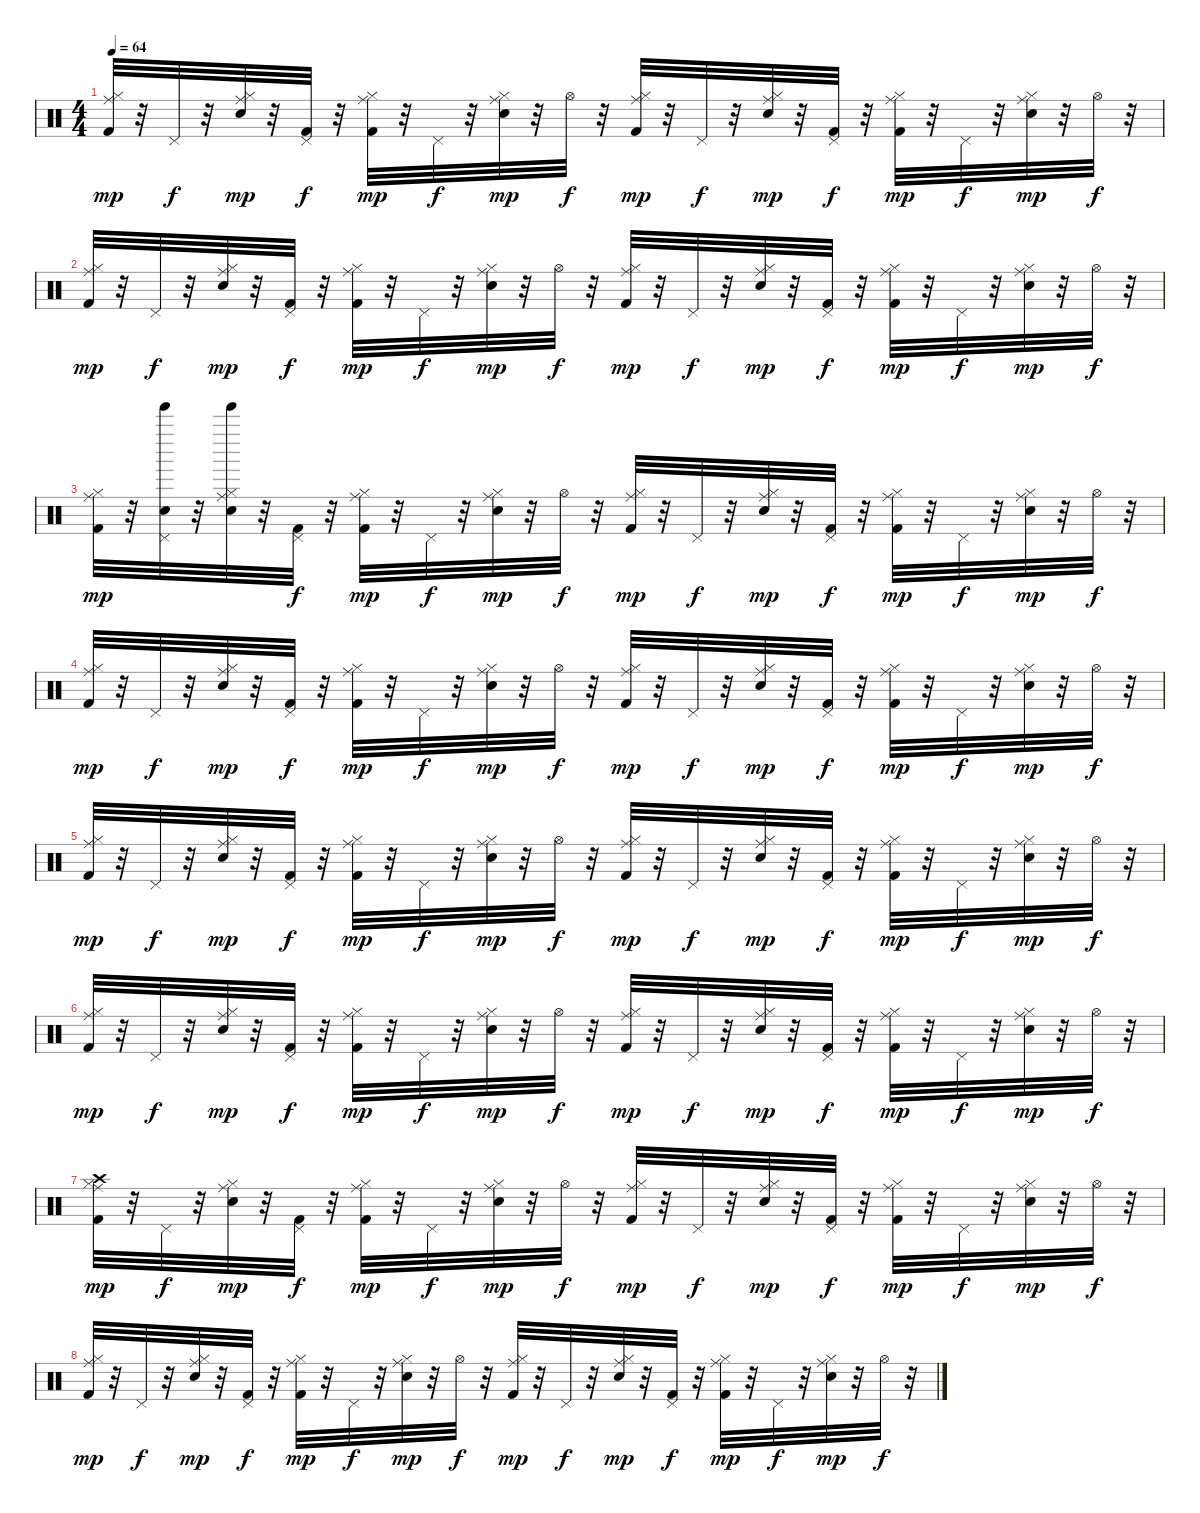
\track "" {instrument percussion}
\staff {score}
\articulation defaults
\ts (4 4)
\tempo 64
\clef neutral
\ks c
("Ride (middle)" "Hi-Hat (closed)" "Kick (hit) 2").32{dy mp} r.32 "Pedal Hi-Hat (hit)".32{dy f} r.32 ("Ride (middle)" "Hi-Hat (closed)" "Snare (hit) 2").32{dy mp} r.32 ("Pedal Hi-Hat (hit)" "Kick (hit) 2").32{dy f} r.32 ("Ride (middle)" "Hi-Hat (closed)" "Kick (hit) 2").32{dy mp} r.32 "Pedal Hi-Hat (hit)".32{dy f} r.32 ("Snare (hit) 2" "Ride (middle)" "Hi-Hat (closed)").32{dy mp} r.32 "Hi-Hat (open)".32{dy f} r.32 ("Kick (hit) 2" "Hi-Hat (closed)" "Ride (middle)").32{dy mp} r.32 "Pedal Hi-Hat (hit)".32{dy f} r.32 ("Snare (hit) 2" "Hi-Hat (closed)" "Ride (middle)").32{dy mp} r.32 ("Kick (hit) 2" "Pedal Hi-Hat (hit)").32{dy f} r.32 ("Kick (hit) 2" "Hi-Hat (closed)" "Ride (middle)").32{dy mp} r.32 "Pedal Hi-Hat (hit)".32{dy f} r.32 ("Snare (hit) 2" "Hi-Hat (closed)" "Ride (middle)").32{dy mp} r.32 "Hi-Hat (open)".32{dy f} r.32 |
("Ride (middle)" "Hi-Hat (closed)" "Kick (hit) 2").32{dy mp} r.32 "Pedal Hi-Hat (hit)".32{dy f} r.32 ("Ride (middle)" "Hi-Hat (closed)" "Snare (hit) 2").32{dy mp} r.32 ("Pedal Hi-Hat (hit)" "Kick (hit) 2").32{dy f} r.32 ("Ride (middle)" "Hi-Hat (closed)" "Kick (hit) 2").32{dy mp} r.32 "Pedal Hi-Hat (hit)".32{dy f} r.32 ("Snare (hit) 2" "Ride (middle)" "Hi-Hat (closed)").32{dy mp} r.32 "Hi-Hat (open)".32{dy f} r.32 ("Kick (hit) 2" "Hi-Hat (closed)" "Ride (middle)").32{dy mp} r.32 "Pedal Hi-Hat (hit)".32{dy f} r.32 ("Snare (hit) 2" "Hi-Hat (closed)" "Ride (middle)").32{dy mp} r.32 ("Kick (hit) 2" "Pedal Hi-Hat (hit)").32{dy f} r.32 ("Kick (hit) 2" "Hi-Hat (closed)" "Ride (middle)").32{dy mp} r.32 "Pedal Hi-Hat (hit)".32{dy f} r.32 ("Snare (hit) 2" "Hi-Hat (closed)" "Ride (middle)").32{dy mp} r.32 "Hi-Hat (open)".32{dy f} r.32 |
("Ride (middle)" "Hi-Hat (closed)" "Kick (hit) 2").32{dy mp} r.32 ("Snare (hit) 2" "Pedal Hi-Hat (hit)" "Tinkle Bell (hit)").32 r.32 ("Ride (middle)" "Hi-Hat (closed)" "Snare (hit) 2" "Tinkle Bell (hit)").32 r.32 ("Pedal Hi-Hat (hit)" "Kick (hit) 2").32{dy f} r.32 ("Ride (middle)" "Hi-Hat (closed)" "Kick (hit) 2").32{dy mp} r.32 "Pedal Hi-Hat (hit)".32{dy f} r.32 ("Snare (hit) 2" "Ride (middle)" "Hi-Hat (closed)").32{dy mp} r.32 "Hi-Hat (open)".32{dy f} r.32 ("Kick (hit) 2" "Hi-Hat (closed)" "Ride (middle)").32{dy mp} r.32 "Pedal Hi-Hat (hit)".32{dy f} r.32 ("Snare (hit) 2" "Hi-Hat (closed)" "Ride (middle)").32{dy mp} r.32 ("Kick (hit) 2" "Pedal Hi-Hat (hit)").32{dy f} r.32 ("Kick (hit) 2" "Hi-Hat (closed)" "Ride (middle)").32{dy mp} r.32 "Pedal Hi-Hat (hit)".32{dy f} r.32 ("Snare (hit) 2" "Hi-Hat (closed)" "Ride (middle)").32{dy mp} r.32 "Hi-Hat (open)".32{dy f} r.32 |
("Ride (middle)" "Hi-Hat (closed)" "Kick (hit) 2").32{dy mp} r.32 "Pedal Hi-Hat (hit)".32{dy f} r.32 ("Ride (middle)" "Hi-Hat (closed)" "Snare (hit) 2").32{dy mp} r.32 ("Pedal Hi-Hat (hit)" "Kick (hit) 2").32{dy f} r.32 ("Ride (middle)" "Hi-Hat (closed)" "Kick (hit) 2").32{dy mp} r.32 "Pedal Hi-Hat (hit)".32{dy f} r.32 ("Snare (hit) 2" "Ride (middle)" "Hi-Hat (closed)").32{dy mp} r.32 "Hi-Hat (open)".32{dy f} r.32 ("Kick (hit) 2" "Hi-Hat (closed)" "Ride (middle)").32{dy mp} r.32 "Pedal Hi-Hat (hit)".32{dy f} r.32 ("Snare (hit) 2" "Hi-Hat (closed)" "Ride (middle)").32{dy mp} r.32 ("Kick (hit) 2" "Pedal Hi-Hat (hit)").32{dy f} r.32 ("Kick (hit) 2" "Hi-Hat (closed)" "Ride (middle)").32{dy mp} r.32 "Pedal Hi-Hat (hit)".32{dy f} r.32 ("Snare (hit) 2" "Hi-Hat (closed)" "Ride (middle)").32{dy mp} r.32 "Hi-Hat (open)".32{dy f} r.32 |
("Ride (middle)" "Hi-Hat (closed)" "Kick (hit) 2").32{dy mp} r.32 "Pedal Hi-Hat (hit)".32{dy f} r.32 ("Ride (middle)" "Hi-Hat (closed)" "Snare (hit) 2").32{dy mp} r.32 ("Pedal Hi-Hat (hit)" "Kick (hit) 2").32{dy f} r.32 ("Ride (middle)" "Hi-Hat (closed)" "Kick (hit) 2").32{dy mp} r.32 "Pedal Hi-Hat (hit)".32{dy f} r.32 ("Snare (hit) 2" "Ride (middle)" "Hi-Hat (closed)").32{dy mp} r.32 "Hi-Hat (open)".32{dy f} r.32 ("Kick (hit) 2" "Hi-Hat (closed)" "Ride (middle)").32{dy mp} r.32 "Pedal Hi-Hat (hit)".32{dy f} r.32 ("Snare (hit) 2" "Hi-Hat (closed)" "Ride (middle)").32{dy mp} r.32 ("Kick (hit) 2" "Pedal Hi-Hat (hit)").32{dy f} r.32 ("Kick (hit) 2" "Hi-Hat (closed)" "Ride (middle)").32{dy mp} r.32 "Pedal Hi-Hat (hit)".32{dy f} r.32 ("Snare (hit) 2" "Hi-Hat (closed)" "Ride (middle)").32{dy mp} r.32 "Hi-Hat (open)".32{dy f} r.32 |
("Ride (middle)" "Hi-Hat (closed)" "Kick (hit) 2").32{dy mp} r.32 "Pedal Hi-Hat (hit)".32{dy f} r.32 ("Ride (middle)" "Hi-Hat (closed)" "Snare (hit) 2").32{dy mp} r.32 ("Pedal Hi-Hat (hit)" "Kick (hit) 2").32{dy f} r.32 ("Ride (middle)" "Hi-Hat (closed)" "Kick (hit) 2").32{dy mp} r.32 "Pedal Hi-Hat (hit)".32{dy f} r.32 ("Snare (hit) 2" "Ride (middle)" "Hi-Hat (closed)").32{dy mp} r.32 "Hi-Hat (open)".32{dy f} r.32 ("Kick (hit) 2" "Hi-Hat (closed)" "Ride (middle)").32{dy mp} r.32 "Pedal Hi-Hat (hit)".32{dy f} r.32 ("Snare (hit) 2" "Hi-Hat (closed)" "Ride (middle)").32{dy mp} r.32 ("Kick (hit) 2" "Pedal Hi-Hat (hit)").32{dy f} r.32 ("Kick (hit) 2" "Hi-Hat (closed)" "Ride (middle)").32{dy mp} r.32 "Pedal Hi-Hat (hit)".32{dy f} r.32 ("Snare (hit) 2" "Hi-Hat (closed)" "Ride (middle)").32{dy mp} r.32 "Hi-Hat (open)".32{dy f} r.32 |
("Crash high (hit)" "Ride (middle)" "Hi-Hat (closed)" "Kick (hit) 2").32{dy mp} r.32 "Pedal Hi-Hat (hit)".32{dy f} r.32 ("Ride (middle)" "Hi-Hat (closed)" "Snare (hit) 2").32{dy mp} r.32 ("Pedal Hi-Hat (hit)" "Kick (hit) 2").32{dy f} r.32 ("Ride (middle)" "Hi-Hat (closed)" "Kick (hit) 2").32{dy mp} r.32 "Pedal Hi-Hat (hit)".32{dy f} r.32 ("Snare (hit) 2" "Ride (middle)" "Hi-Hat (closed)").32{dy mp} r.32 "Hi-Hat (open)".32{dy f} r.32 ("Kick (hit) 2" "Hi-Hat (closed)" "Ride (middle)").32{dy mp} r.32 "Pedal Hi-Hat (hit)".32{dy f} r.32 ("Snare (hit) 2" "Hi-Hat (closed)" "Ride (middle)").32{dy mp} r.32 ("Kick (hit) 2" "Pedal Hi-Hat (hit)").32{dy f} r.32 ("Kick (hit) 2" "Hi-Hat (closed)" "Ride (middle)").32{dy mp} r.32 "Pedal Hi-Hat (hit)".32{dy f} r.32 ("Snare (hit) 2" "Hi-Hat (closed)" "Ride (middle)").32{dy mp} r.32 "Hi-Hat (open)".32{dy f} r.32 |
("Ride (middle)" "Hi-Hat (closed)" "Kick (hit) 2").32{dy mp} r.32 "Pedal Hi-Hat (hit)".32{dy f} r.32 ("Ride (middle)" "Hi-Hat (closed)" "Snare (hit) 2").32{dy mp} r.32 ("Pedal Hi-Hat (hit)" "Kick (hit) 2").32{dy f} r.32 ("Ride (middle)" "Hi-Hat (closed)" "Kick (hit) 2").32{dy mp} r.32 "Pedal Hi-Hat (hit)".32{dy f} r.32 ("Snare (hit) 2" "Ride (middle)" "Hi-Hat (closed)").32{dy mp} r.32 "Hi-Hat (open)".32{dy f} r.32 ("Kick (hit) 2" "Hi-Hat (closed)" "Ride (middle)").32{dy mp} r.32 "Pedal Hi-Hat (hit)".32{dy f} r.32 ("Snare (hit) 2" "Hi-Hat (closed)" "Ride (middle)").32{dy mp} r.32 ("Kick (hit) 2" "Pedal Hi-Hat (hit)").32{dy f} r.32 ("Kick (hit) 2" "Hi-Hat (closed)" "Ride (middle)").32{dy mp} r.32 "Pedal Hi-Hat (hit)".32{dy f} r.32 ("Snare (hit) 2" "Hi-Hat (closed)" "Ride (middle)").32{dy mp} r.32 "Hi-Hat (open)".32{dy f} r.32
